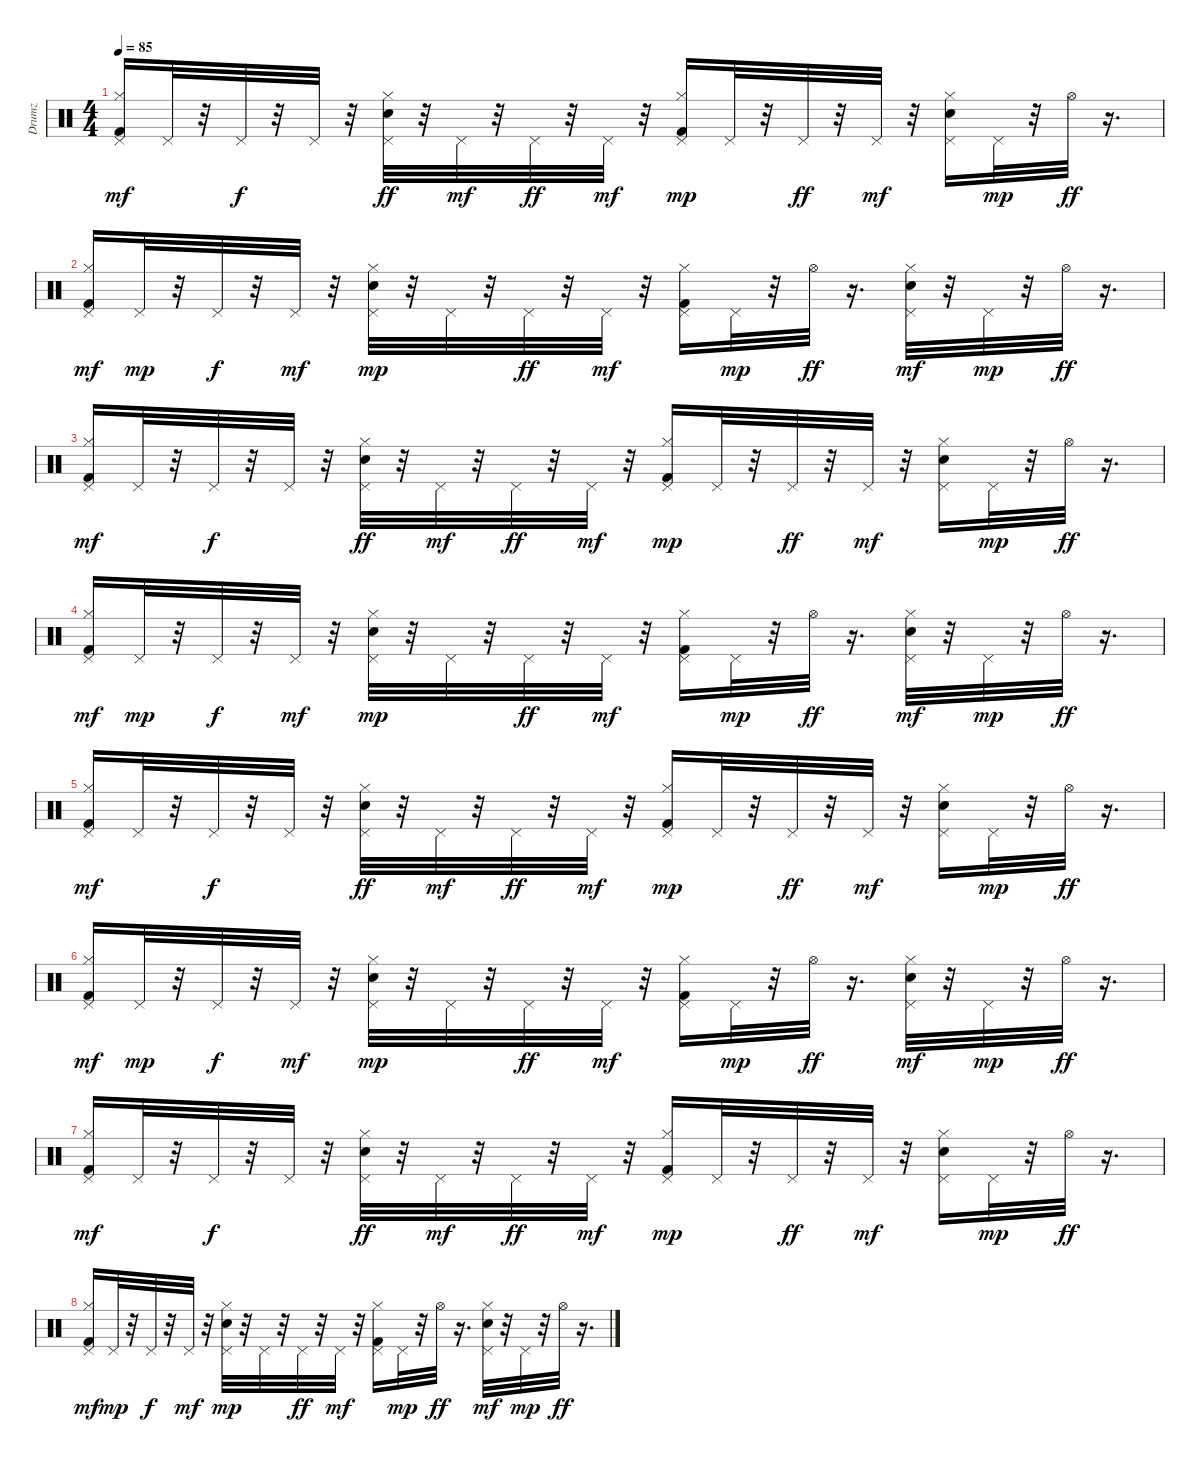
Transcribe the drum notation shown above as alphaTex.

\track ("Drumz" "Drumz") {instrument percussion}
\staff {score}
\articulation defaults
\ts (4 4)
\tempo 85
\clef neutral
\ks c
("Kick (hit) 2" "Hi-Hat (closed)" "Pedal Hi-Hat (hit)").16{dy mf volume 12} "Pedal Hi-Hat (hit)".32 r.32 "Pedal Hi-Hat (hit)".32{dy f} r.32 "Pedal Hi-Hat (hit)".32 r.32 ("Hand Clap (hit)" "Hi-Hat (closed)" "Pedal Hi-Hat (hit)").32{dy ff} r.32 "Pedal Hi-Hat (hit)".32{dy mf} r.32 "Pedal Hi-Hat (hit)".32{dy ff} r.32 "Pedal Hi-Hat (hit)".32{dy mf} r.32 ("Kick (hit) 2" "Hi-Hat (closed)" "Pedal Hi-Hat (hit)").16{dy mp} "Pedal Hi-Hat (hit)".32 r.32 "Pedal Hi-Hat (hit)".32{dy ff} r.32 "Pedal Hi-Hat (hit)".32{dy mf} r.32 ("Hand Clap (hit)" "Hi-Hat (closed)" "Pedal Hi-Hat (hit)").16 "Pedal Hi-Hat (hit)".32{dy mp} r.32 "Hi-Hat (open)".32{dy ff} r.16{d} |
("Kick (hit) 2" "Hi-Hat (closed)" "Pedal Hi-Hat (hit)").16{dy mf} "Pedal Hi-Hat (hit)".32{dy mp} r.32 "Pedal Hi-Hat (hit)".32{dy f} r.32 "Pedal Hi-Hat (hit)".32{dy mf} r.32 ("Hand Clap (hit)" "Hi-Hat (closed)" "Pedal Hi-Hat (hit)").32{dy mp} r.32 "Pedal Hi-Hat (hit)".32 r.32 "Pedal Hi-Hat (hit)".32{dy ff} r.32 "Pedal Hi-Hat (hit)".32{dy mf} r.32 ("Kick (hit) 2" "Hi-Hat (closed)" "Pedal Hi-Hat (hit)").16 "Pedal Hi-Hat (hit)".32{dy mp} r.32 "Hi-Hat (open)".32{dy ff} r.16{d} ("Hand Clap (hit)" "Hi-Hat (closed)" "Pedal Hi-Hat (hit)").32{dy mf} r.32 "Pedal Hi-Hat (hit)".32{dy mp} r.32 "Hi-Hat (open)".32{dy ff} r.16{d} |
("Kick (hit) 2" "Hi-Hat (closed)" "Pedal Hi-Hat (hit)").16{dy mf} "Pedal Hi-Hat (hit)".32 r.32 "Pedal Hi-Hat (hit)".32{dy f} r.32 "Pedal Hi-Hat (hit)".32 r.32 ("Hand Clap (hit)" "Hi-Hat (closed)" "Pedal Hi-Hat (hit)").32{dy ff} r.32 "Pedal Hi-Hat (hit)".32{dy mf} r.32 "Pedal Hi-Hat (hit)".32{dy ff} r.32 "Pedal Hi-Hat (hit)".32{dy mf} r.32 ("Kick (hit) 2" "Hi-Hat (closed)" "Pedal Hi-Hat (hit)").16{dy mp} "Pedal Hi-Hat (hit)".32 r.32 "Pedal Hi-Hat (hit)".32{dy ff} r.32 "Pedal Hi-Hat (hit)".32{dy mf} r.32 ("Hand Clap (hit)" "Hi-Hat (closed)" "Pedal Hi-Hat (hit)").16 "Pedal Hi-Hat (hit)".32{dy mp} r.32 "Hi-Hat (open)".32{dy ff} r.16{d} |
("Kick (hit) 2" "Hi-Hat (closed)" "Pedal Hi-Hat (hit)").16{dy mf} "Pedal Hi-Hat (hit)".32{dy mp} r.32 "Pedal Hi-Hat (hit)".32{dy f} r.32 "Pedal Hi-Hat (hit)".32{dy mf} r.32 ("Hand Clap (hit)" "Hi-Hat (closed)" "Pedal Hi-Hat (hit)").32{dy mp} r.32 "Pedal Hi-Hat (hit)".32 r.32 "Pedal Hi-Hat (hit)".32{dy ff} r.32 "Pedal Hi-Hat (hit)".32{dy mf} r.32 ("Kick (hit) 2" "Hi-Hat (closed)" "Pedal Hi-Hat (hit)").16 "Pedal Hi-Hat (hit)".32{dy mp} r.32 "Hi-Hat (open)".32{dy ff} r.16{d} ("Hand Clap (hit)" "Hi-Hat (closed)" "Pedal Hi-Hat (hit)").32{dy mf} r.32 "Pedal Hi-Hat (hit)".32{dy mp} r.32 "Hi-Hat (open)".32{dy ff} r.16{d} |
("Kick (hit) 2" "Hi-Hat (closed)" "Pedal Hi-Hat (hit)").16{dy mf} "Pedal Hi-Hat (hit)".32 r.32 "Pedal Hi-Hat (hit)".32{dy f} r.32 "Pedal Hi-Hat (hit)".32 r.32 ("Hand Clap (hit)" "Hi-Hat (closed)" "Pedal Hi-Hat (hit)").32{dy ff} r.32 "Pedal Hi-Hat (hit)".32{dy mf} r.32 "Pedal Hi-Hat (hit)".32{dy ff} r.32 "Pedal Hi-Hat (hit)".32{dy mf} r.32 ("Kick (hit) 2" "Hi-Hat (closed)" "Pedal Hi-Hat (hit)").16{dy mp} "Pedal Hi-Hat (hit)".32 r.32 "Pedal Hi-Hat (hit)".32{dy ff} r.32 "Pedal Hi-Hat (hit)".32{dy mf} r.32 ("Hand Clap (hit)" "Hi-Hat (closed)" "Pedal Hi-Hat (hit)").16 "Pedal Hi-Hat (hit)".32{dy mp} r.32 "Hi-Hat (open)".32{dy ff} r.16{d} |
("Kick (hit) 2" "Hi-Hat (closed)" "Pedal Hi-Hat (hit)").16{dy mf} "Pedal Hi-Hat (hit)".32{dy mp} r.32 "Pedal Hi-Hat (hit)".32{dy f} r.32 "Pedal Hi-Hat (hit)".32{dy mf} r.32 ("Hand Clap (hit)" "Hi-Hat (closed)" "Pedal Hi-Hat (hit)").32{dy mp} r.32 "Pedal Hi-Hat (hit)".32 r.32 "Pedal Hi-Hat (hit)".32{dy ff} r.32 "Pedal Hi-Hat (hit)".32{dy mf} r.32 ("Kick (hit) 2" "Hi-Hat (closed)" "Pedal Hi-Hat (hit)").16 "Pedal Hi-Hat (hit)".32{dy mp} r.32 "Hi-Hat (open)".32{dy ff} r.16{d} ("Hand Clap (hit)" "Hi-Hat (closed)" "Pedal Hi-Hat (hit)").32{dy mf} r.32 "Pedal Hi-Hat (hit)".32{dy mp} r.32 "Hi-Hat (open)".32{dy ff} r.16{d} |
("Kick (hit) 2" "Hi-Hat (closed)" "Pedal Hi-Hat (hit)").16{dy mf} "Pedal Hi-Hat (hit)".32 r.32 "Pedal Hi-Hat (hit)".32{dy f} r.32 "Pedal Hi-Hat (hit)".32 r.32 ("Hand Clap (hit)" "Hi-Hat (closed)" "Pedal Hi-Hat (hit)").32{dy ff} r.32 "Pedal Hi-Hat (hit)".32{dy mf} r.32 "Pedal Hi-Hat (hit)".32{dy ff} r.32 "Pedal Hi-Hat (hit)".32{dy mf} r.32 ("Kick (hit) 2" "Hi-Hat (closed)" "Pedal Hi-Hat (hit)").16{dy mp} "Pedal Hi-Hat (hit)".32 r.32 "Pedal Hi-Hat (hit)".32{dy ff} r.32 "Pedal Hi-Hat (hit)".32{dy mf} r.32 ("Hand Clap (hit)" "Hi-Hat (closed)" "Pedal Hi-Hat (hit)").16 "Pedal Hi-Hat (hit)".32{dy mp} r.32 "Hi-Hat (open)".32{dy ff} r.16{d} |
("Kick (hit) 2" "Hi-Hat (closed)" "Pedal Hi-Hat (hit)").16{dy mf} "Pedal Hi-Hat (hit)".32{dy mp} r.32 "Pedal Hi-Hat (hit)".32{dy f} r.32 "Pedal Hi-Hat (hit)".32{dy mf} r.32 ("Hand Clap (hit)" "Hi-Hat (closed)" "Pedal Hi-Hat (hit)").32{dy mp} r.32 "Pedal Hi-Hat (hit)".32 r.32 "Pedal Hi-Hat (hit)".32{dy ff} r.32 "Pedal Hi-Hat (hit)".32{dy mf} r.32 ("Kick (hit) 2" "Hi-Hat (closed)" "Pedal Hi-Hat (hit)").16 "Pedal Hi-Hat (hit)".32{dy mp} r.32 "Hi-Hat (open)".32{dy ff} r.16{d} ("Hand Clap (hit)" "Hi-Hat (closed)" "Pedal Hi-Hat (hit)").32{dy mf} r.32 "Pedal Hi-Hat (hit)".32{dy mp} r.32 "Hi-Hat (open)".32{dy ff} r.16{d}
